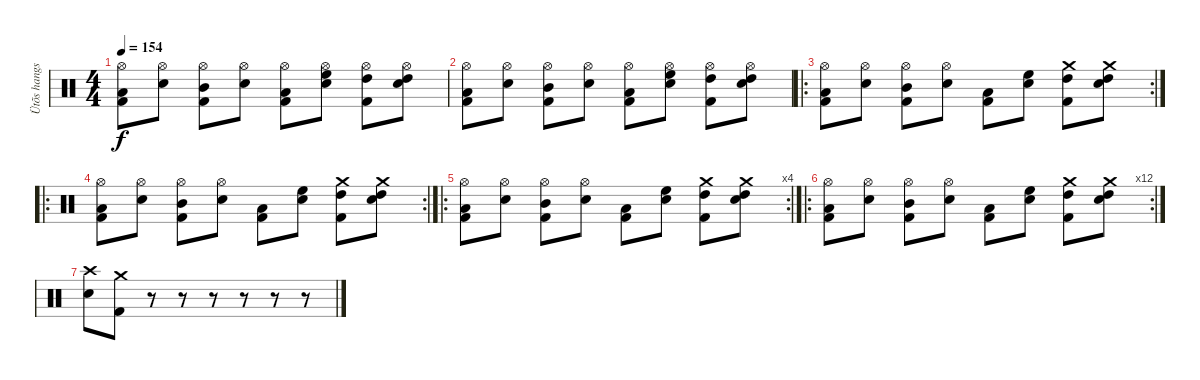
\track ("Ütõs hangszer" "Ütõs hangs") {instrument percussion}
\staff {score}
\articulation defaults
\ts (4 4)
\tempo 154
\clef neutral
\ks c
("Hi-Hat (open)" "Low Tom (hit)" "Kick (hit) 2").8{dy f} ("Hi-Hat (open)" "Snare (hit) 2").8 ("Hi-Hat (open)" "Mid Tom (hit)" "Kick (hit) 2").8 ("Hi-Hat (open)" "Snare (hit) 2").8 ("Hi-Hat (open)" "Low Tom (hit)" "Kick (hit) 2").8 ("Hi-Hat (open)" "High Floor Tom (hit)" "Snare (hit) 2").8 ("Hi-Hat (open)" "High Tom (hit)" "Kick (hit) 2").8 ("Hi-Hat (open)" "High Tom (hit)" "Snare (hit) 2").8 |
("Hi-Hat (open)" "Low Tom (hit)" "Kick (hit) 2").8 ("Hi-Hat (open)" "Snare (hit) 2").8 ("Hi-Hat (open)" "Mid Tom (hit)" "Kick (hit) 2").8 ("Hi-Hat (open)" "Snare (hit) 2").8 ("Hi-Hat (open)" "Low Tom (hit)" "Kick (hit) 2").8 ("Hi-Hat (open)" "High Floor Tom (hit)" "Snare (hit) 2").8 ("Hi-Hat (open)" "High Tom (hit)" "Kick (hit) 2").8 ("Hi-Hat (open)" "High Tom (hit)" "Snare (hit) 2").8 |
\ro
\rc 2
("Hi-Hat (open)" "Low Tom (hit)" "Kick (hit) 2").8 ("Hi-Hat (open)" "Snare (hit) 2").8 ("Hi-Hat (open)" "Mid Tom (hit)" "Kick (hit) 2").8 ("Hi-Hat (open)" "Snare (hit) 2").8 ("Low Tom (hit)" "Kick (hit) 2").8 ("High Floor Tom (hit)" "Snare (hit) 2").8 ("Crash medium (hit)" "High Tom (hit)" "Kick (hit) 2").8 ("Crash medium (hit)" "High Tom (hit)" "Snare (hit) 2").8 |
\ro
\rc 2
("Hi-Hat (open)" "Low Tom (hit)" "Kick (hit) 2").8 ("Hi-Hat (open)" "Snare (hit) 2").8 ("Hi-Hat (open)" "Mid Tom (hit)" "Kick (hit) 2").8 ("Hi-Hat (open)" "Snare (hit) 2").8 ("Low Tom (hit)" "Kick (hit) 2").8 ("High Floor Tom (hit)" "Snare (hit) 2").8 ("Crash medium (hit)" "High Tom (hit)" "Kick (hit) 2").8 ("Crash medium (hit)" "High Tom (hit)" "Snare (hit) 2").8 |
\ro
\rc 4
("Hi-Hat (open)" "Low Tom (hit)" "Kick (hit) 2").8 ("Hi-Hat (open)" "Snare (hit) 2").8 ("Hi-Hat (open)" "Mid Tom (hit)" "Kick (hit) 2").8 ("Hi-Hat (open)" "Snare (hit) 2").8 ("Low Tom (hit)" "Kick (hit) 2").8 ("High Floor Tom (hit)" "Snare (hit) 2").8 ("Crash medium (hit)" "High Tom (hit)" "Kick (hit) 2").8 ("Crash medium (hit)" "High Tom (hit)" "Snare (hit) 2").8 |
\ro
\rc 12
("Hi-Hat (open)" "Low Tom (hit)" "Kick (hit) 2").8 ("Hi-Hat (open)" "Snare (hit) 2").8 ("Hi-Hat (open)" "Mid Tom (hit)" "Kick (hit) 2").8 ("Hi-Hat (open)" "Snare (hit) 2").8 ("Low Tom (hit)" "Kick (hit) 2").8 ("High Floor Tom (hit)" "Snare (hit) 2").8 ("Crash medium (hit)" "High Tom (hit)" "Kick (hit) 2").8 ("Crash medium (hit)" "High Tom (hit)" "Snare (hit) 2").8 |
("Snare (hit) 2" "Crash high (hit)").8 ("Crash medium (hit)" "Kick (hit) 2").8 r.8 r.8 r.8 r.8 r.8 r.8
